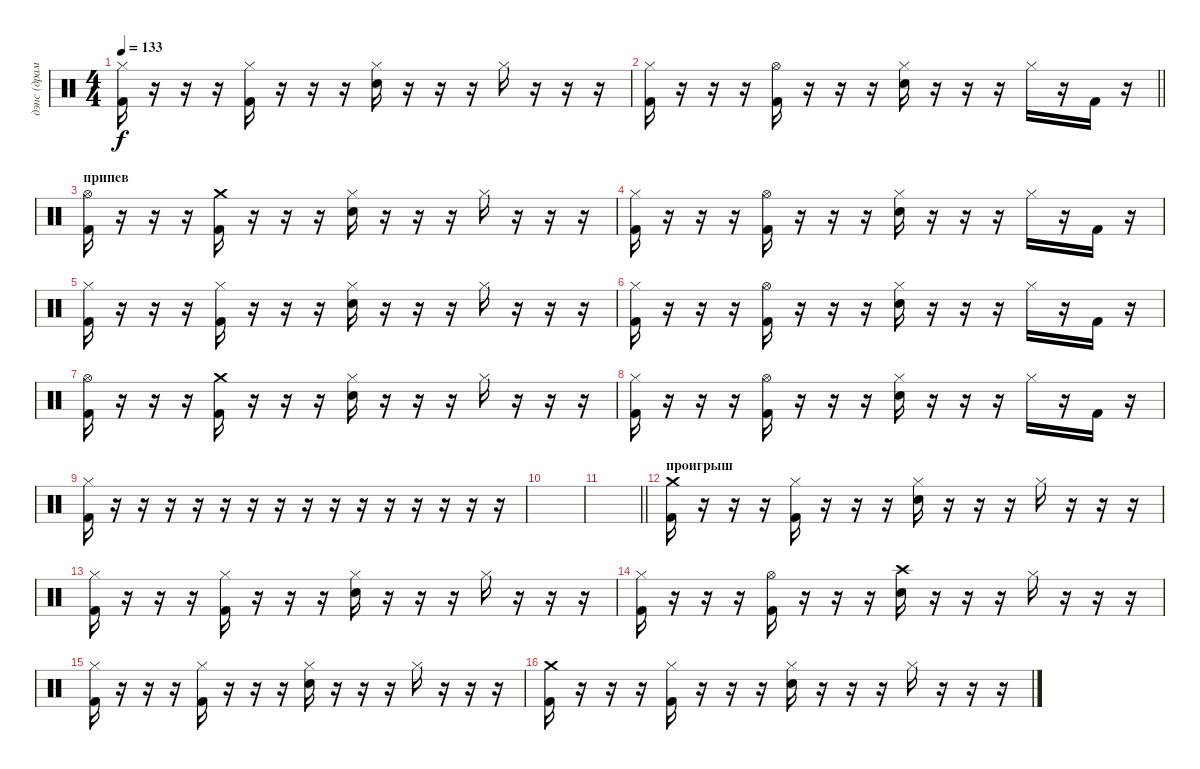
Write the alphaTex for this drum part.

\track ("дэнс (драммы)" "дэнс (драм") {instrument percussion}
\staff {score}
\articulation defaults
\ts (4 4)
\tempo 133
\clef neutral
\ks c
("Kick (hit) 2" "Hi-Hat (closed)").16{dy f} r.16 r.16 r.16 ("Kick (hit) 2" "Hi-Hat (closed)").16 r.16 r.16 r.16 ("Snare (hit) 2" "Hi-Hat (closed)").16 r.16 r.16 r.16 "Hi-Hat (closed)".16 r.16 r.16 r.16 |
\barLineRight lightlight
("Kick (hit) 2" "Hi-Hat (closed)").16 r.16 r.16 r.16 ("Kick (hit) 2" "Hi-Hat (open)").16 r.16 r.16 r.16 ("Snare (hit) 2" "Hi-Hat (closed)").16 r.16 r.16 r.16 "Hi-Hat (closed)".16 r.16 "Kick (hit) 2".16 r.16 |
\section ("" "припев")
("Kick (hit) 2" "Hi-Hat (open)").16 r.16 r.16 r.16 ("Kick (hit) 2" "Crash medium (hit)").16 r.16 r.16 r.16 ("Snare (hit) 2" "Hi-Hat (closed)").16 r.16 r.16 r.16 "Hi-Hat (closed)".16 r.16 r.16 r.16 |
("Kick (hit) 2" "Hi-Hat (closed)").16 r.16 r.16 r.16 ("Kick (hit) 2" "Hi-Hat (open)").16 r.16 r.16 r.16 ("Snare (hit) 2" "Hi-Hat (closed)").16 r.16 r.16 r.16 "Hi-Hat (closed)".16 r.16 "Kick (hit) 2".16 r.16 |
("Kick (hit) 2" "Hi-Hat (closed)").16 r.16 r.16 r.16 ("Kick (hit) 2" "Hi-Hat (closed)").16 r.16 r.16 r.16 ("Snare (hit) 2" "Hi-Hat (closed)").16 r.16 r.16 r.16 "Hi-Hat (closed)".16 r.16 r.16 r.16 |
("Kick (hit) 2" "Hi-Hat (closed)").16 r.16 r.16 r.16 ("Kick (hit) 2" "Hi-Hat (open)").16 r.16 r.16 r.16 ("Snare (hit) 2" "Hi-Hat (closed)").16 r.16 r.16 r.16 "Hi-Hat (closed)".16 r.16 "Kick (hit) 2".16 r.16 |
("Kick (hit) 2" "Hi-Hat (open)").16 r.16 r.16 r.16 ("Kick (hit) 2" "Crash medium (hit)").16 r.16 r.16 r.16 ("Snare (hit) 2" "Hi-Hat (closed)").16 r.16 r.16 r.16 "Hi-Hat (closed)".16 r.16 r.16 r.16 |
("Kick (hit) 2" "Hi-Hat (closed)").16 r.16 r.16 r.16 ("Kick (hit) 2" "Hi-Hat (open)").16 r.16 r.16 r.16 ("Snare (hit) 2" "Hi-Hat (closed)").16 r.16 r.16 r.16 "Hi-Hat (closed)".16 r.16 "Kick (hit) 2".16 r.16 |
("Kick (hit) 2" "Hi-Hat (closed)").16 r.16 r.16 r.16 r.16 r.16 r.16 r.16 r.16 r.16 r.16 r.16 r.16 r.16 r.16 r.16 |
|
\barLineRight lightlight
|
\section ("" "проигрыш")
("Kick (hit) 2" "Crash medium (hit)").16 r.16 r.16 r.16 ("Kick (hit) 2" "Hi-Hat (closed)").16 r.16 r.16 r.16 ("Snare (hit) 2" "Hi-Hat (closed)").16 r.16 r.16 r.16 "Hi-Hat (closed)".16 r.16 r.16 r.16 |
("Kick (hit) 2" "Hi-Hat (closed)").16 r.16 r.16 r.16 ("Kick (hit) 2" "Hi-Hat (closed)").16 r.16 r.16 r.16 ("Snare (hit) 2" "Hi-Hat (closed)").16 r.16 r.16 r.16 "Hi-Hat (closed)".16 r.16 r.16 r.16 |
("Kick (hit) 2" "Hi-Hat (closed)").16 r.16 r.16 r.16 ("Kick (hit) 2" "Hi-Hat (open)").16 r.16 r.16 r.16 ("Snare (hit) 2" "Crash high (hit)").16 r.16 r.16 r.16 "Hi-Hat (closed)".16 r.16 r.16 r.16 |
("Kick (hit) 2" "Hi-Hat (closed)").16 r.16 r.16 r.16 ("Kick (hit) 2" "Hi-Hat (closed)").16 r.16 r.16 r.16 ("Snare (hit) 2" "Hi-Hat (closed)").16 r.16 r.16 r.16 "Hi-Hat (closed)".16 r.16 r.16 r.16 |
("Kick (hit) 2" "Crash medium (hit)").16 r.16 r.16 r.16 ("Kick (hit) 2" "Hi-Hat (closed)").16 r.16 r.16 r.16 ("Snare (hit) 2" "Hi-Hat (closed)").16 r.16 r.16 r.16 "Hi-Hat (closed)".16 r.16 r.16 r.16
